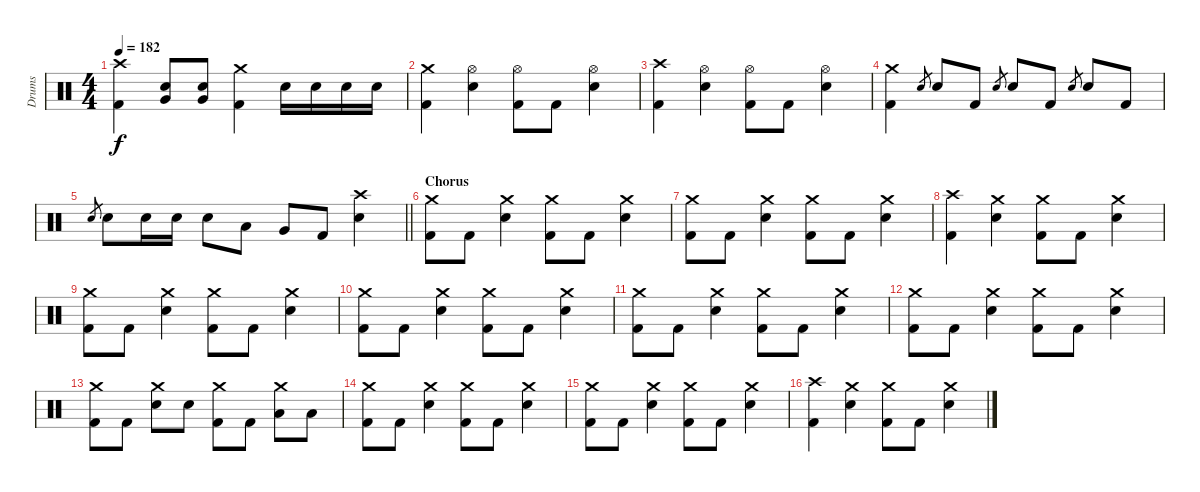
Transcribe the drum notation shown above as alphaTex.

\track ("Drums" "Drums") {instrument percussion}
\staff {score}
\articulation defaults
\ts (4 4)
\tempo 182
\clef neutral
\ks c
("Crash high (hit)" "Kick (hit) 2").4{dy f} ("Very Low Tom (hit)" "Electric Snare (hit)").8 ("Very Low Tom (hit)" "Electric Snare (hit)").8 ("Crash medium (hit)" "Kick (hit) 2").4 "Electric Snare (hit)".16 "Electric Snare (hit)".16 "Electric Snare (hit)".16 "Electric Snare (hit)".16 |
("Crash medium (hit)" "Kick (hit) 2").4 ("Hi-Hat (open)" "Electric Snare (hit)").4 ("Hi-Hat (open)" "Kick (hit) 2").8 "Kick (hit) 2".8 ("Hi-Hat (open)" "Electric Snare (hit)").4 |
("Crash high (hit)" "Kick (hit) 2").4 ("Hi-Hat (open)" "Electric Snare (hit)").4 ("Hi-Hat (open)" "Kick (hit) 2").8 "Kick (hit) 2".8 ("Hi-Hat (open)" "Electric Snare (hit)").4 |
("Crash medium (hit)" "Kick (hit) 2").4 "Electric Snare (hit)".8{gr} "Electric Snare (hit)".8 "Kick (hit) 2".8 "Electric Snare (hit)".8{gr} "Electric Snare (hit)".8 "Kick (hit) 2".8 "Electric Snare (hit)".8{gr} "Electric Snare (hit)".8 "Kick (hit) 2".8 |
\barLineRight lightlight "Electric Snare (hit)".8{gr} "Electric Snare (hit)".8 "Electric Snare (hit)".16 "Electric Snare (hit)".16 "Electric Snare (hit)".8 "Low Tom (hit)".8 "Very Low Tom (hit)".8 "Kick (hit) 2".8
("Crash high (hit)" "Electric Snare (hit)").4 |
\section ("" "Chorus")
("Crash medium (hit)" "Kick (hit) 2").8 "Kick (hit) 2".8 ("Crash medium (hit)" "Electric Snare (hit)").4 ("Crash medium (hit)" "Kick (hit) 2").8 "Kick (hit) 2".8 ("Crash medium (hit)" "Electric Snare (hit)").4 |
("Crash medium (hit)" "Kick (hit) 2").8 "Kick (hit) 2".8 ("Crash medium (hit)" "Electric Snare (hit)").4 ("Crash medium (hit)" "Kick (hit) 2").8 "Kick (hit) 2".8 ("Crash medium (hit)" "Electric Snare (hit)").4 |
("Crash high (hit)" "Kick (hit) 2").4 ("Crash medium (hit)" "Electric Snare (hit)").4 ("Crash medium (hit)" "Kick (hit) 2").8 "Kick (hit) 2".8 ("Crash medium (hit)" "Electric Snare (hit)").4 |
("Crash medium (hit)" "Kick (hit) 2").8 "Kick (hit) 2".8 ("Crash medium (hit)" "Electric Snare (hit)").4 ("Crash medium (hit)" "Kick (hit) 2").8 "Kick (hit) 2".8 ("Crash medium (hit)" "Electric Snare (hit)").4 |
("Crash medium (hit)" "Kick (hit) 2").8 "Kick (hit) 2".8 ("Crash medium (hit)" "Electric Snare (hit)").4 ("Crash medium (hit)" "Kick (hit) 2").8 "Kick (hit) 2".8 ("Crash medium (hit)" "Electric Snare (hit)").4 |
("Crash medium (hit)" "Kick (hit) 2").8 "Kick (hit) 2".8 ("Crash medium (hit)" "Electric Snare (hit)").4 ("Crash medium (hit)" "Kick (hit) 2").8 "Kick (hit) 2".8 ("Crash medium (hit)" "Electric Snare (hit)").4 |
("Crash medium (hit)" "Kick (hit) 2").8 "Kick (hit) 2".8 ("Crash medium (hit)" "Electric Snare (hit)").4 ("Crash medium (hit)" "Kick (hit) 2").8 "Kick (hit) 2".8 ("Crash medium (hit)" "Electric Snare (hit)").4 |
("Crash medium (hit)" "Kick (hit) 2").8 "Kick (hit) 2".8 ("Crash medium (hit)" "Electric Snare (hit)").8 "Electric Snare (hit)".8 ("Crash medium (hit)" "Kick (hit) 2").8 "Kick (hit) 2".8 ("Crash medium (hit)" "Low Tom (hit)").8 "Low Tom (hit)".8 |
("Crash medium (hit)" "Kick (hit) 2").8 "Kick (hit) 2".8 ("Crash medium (hit)" "Electric Snare (hit)").4 ("Crash medium (hit)" "Kick (hit) 2").8 "Kick (hit) 2".8 ("Crash medium (hit)" "Electric Snare (hit)").4 |
("Crash medium (hit)" "Kick (hit) 2").8 "Kick (hit) 2".8 ("Crash medium (hit)" "Electric Snare (hit)").4 ("Crash medium (hit)" "Kick (hit) 2").8 "Kick (hit) 2".8 ("Crash medium (hit)" "Electric Snare (hit)").4 |
("Crash high (hit)" "Kick (hit) 2").4 ("Crash medium (hit)" "Electric Snare (hit)").4 ("Crash medium (hit)" "Kick (hit) 2").8 "Kick (hit) 2".8 ("Crash medium (hit)" "Electric Snare (hit)").4
